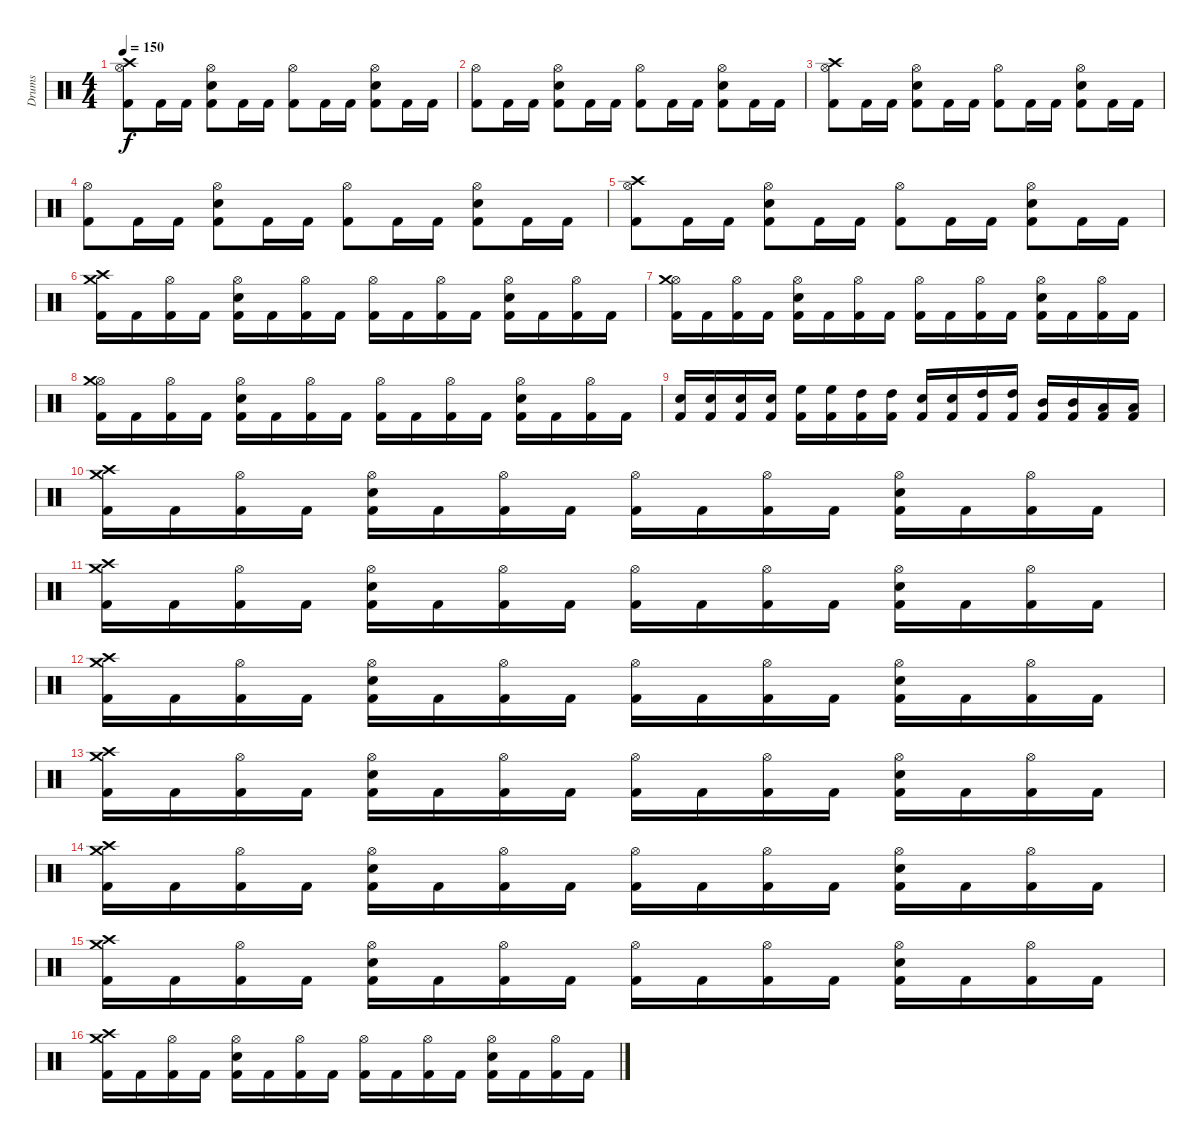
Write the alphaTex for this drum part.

\track ("Drums" "Drums") {instrument percussion}
\staff {score}
\articulation defaults
\ts (4 4)
\tempo 150
\clef neutral
\ks c
("Crash high (hit)" "Hi-Hat (open)" "Kick (hit) 2").8{dy f} "Kick (hit) 2".16 "Kick (hit) 2".16 ("Hi-Hat (open)" "Snare (hit) 2" "Kick (hit) 2").8 "Kick (hit) 2".16 "Kick (hit) 2".16 ("Hi-Hat (open)" "Kick (hit) 2").8 "Kick (hit) 2".16 "Kick (hit) 2".16 ("Hi-Hat (open)" "Snare (hit) 2" "Kick (hit) 2").8 "Kick (hit) 2".16 "Kick (hit) 2".16 |
("Hi-Hat (open)" "Kick (hit) 2").8 "Kick (hit) 2".16 "Kick (hit) 2".16 ("Hi-Hat (open)" "Snare (hit) 2" "Kick (hit) 2").8 "Kick (hit) 2".16 "Kick (hit) 2".16 ("Hi-Hat (open)" "Kick (hit) 2").8 "Kick (hit) 2".16 "Kick (hit) 2".16 ("Hi-Hat (open)" "Snare (hit) 2" "Kick (hit) 2").8 "Kick (hit) 2".16 "Kick (hit) 2".16 |
("Crash high (hit)" "Hi-Hat (open)" "Kick (hit) 2").8 "Kick (hit) 2".16 "Kick (hit) 2".16 ("Hi-Hat (open)" "Snare (hit) 2" "Kick (hit) 2").8 "Kick (hit) 2".16 "Kick (hit) 2".16 ("Hi-Hat (open)" "Kick (hit) 2").8 "Kick (hit) 2".16 "Kick (hit) 2".16 ("Hi-Hat (open)" "Snare (hit) 2" "Kick (hit) 2").8 "Kick (hit) 2".16 "Kick (hit) 2".16 |
("Hi-Hat (open)" "Kick (hit) 2").8 "Kick (hit) 2".16 "Kick (hit) 2".16 ("Hi-Hat (open)" "Snare (hit) 2" "Kick (hit) 2").8 "Kick (hit) 2".16 "Kick (hit) 2".16 ("Hi-Hat (open)" "Kick (hit) 2").8 "Kick (hit) 2".16 "Kick (hit) 2".16 ("Hi-Hat (open)" "Snare (hit) 2" "Kick (hit) 2").8 "Kick (hit) 2".16 "Kick (hit) 2".16 |
("Crash high (hit)" "Hi-Hat (open)" "Kick (hit) 2").8 "Kick (hit) 2".16 "Kick (hit) 2".16 ("Hi-Hat (open)" "Snare (hit) 2" "Kick (hit) 2").8 "Kick (hit) 2".16 "Kick (hit) 2".16 ("Hi-Hat (open)" "Kick (hit) 2").8 "Kick (hit) 2".16 "Kick (hit) 2".16 ("Hi-Hat (open)" "Snare (hit) 2" "Kick (hit) 2").8 "Kick (hit) 2".16 "Kick (hit) 2".16 |
("Crash high (hit)" "Crash medium (hit)" "Kick (hit) 2").16 "Kick (hit) 2".16 ("Hi-Hat (open)" "Kick (hit) 2").16 "Kick (hit) 2".16 ("Hi-Hat (open)" "Electric Snare (hit)" "Kick (hit) 2").16 "Kick (hit) 2".16 ("Hi-Hat (open)" "Kick (hit) 2").16 "Kick (hit) 2".16 ("Hi-Hat (open)" "Kick (hit) 2").16 "Kick (hit) 2".16 ("Hi-Hat (open)" "Kick (hit) 2").16 "Kick (hit) 2".16 ("Hi-Hat (open)" "Electric Snare (hit)" "Kick (hit) 2").16 "Kick (hit) 2".16 ("Hi-Hat (open)" "Kick (hit) 2").16 "Kick (hit) 2".16 |
("Hi-Hat (open)" "Crash medium (hit)" "Kick (hit) 2").16 "Kick (hit) 2".16 ("Hi-Hat (open)" "Kick (hit) 2").16 "Kick (hit) 2".16 ("Hi-Hat (open)" "Electric Snare (hit)" "Kick (hit) 2").16 "Kick (hit) 2".16 ("Hi-Hat (open)" "Kick (hit) 2").16 "Kick (hit) 2".16 ("Hi-Hat (open)" "Kick (hit) 2").16 "Kick (hit) 2".16 ("Hi-Hat (open)" "Kick (hit) 2").16 "Kick (hit) 2".16 ("Hi-Hat (open)" "Electric Snare (hit)" "Kick (hit) 2").16 "Kick (hit) 2".16 ("Hi-Hat (open)" "Kick (hit) 2").16 "Kick (hit) 2".16 |
("Hi-Hat (open)" "Crash medium (hit)" "Kick (hit) 2").16 "Kick (hit) 2".16 ("Hi-Hat (open)" "Kick (hit) 2").16 "Kick (hit) 2".16 ("Hi-Hat (open)" "Electric Snare (hit)" "Kick (hit) 2").16 "Kick (hit) 2".16 ("Hi-Hat (open)" "Kick (hit) 2").16 "Kick (hit) 2".16 ("Hi-Hat (open)" "Kick (hit) 2").16 "Kick (hit) 2".16 ("Hi-Hat (open)" "Kick (hit) 2").16 "Kick (hit) 2".16 ("Hi-Hat (open)" "Electric Snare (hit)" "Kick (hit) 2").16 "Kick (hit) 2".16 ("Hi-Hat (open)" "Kick (hit) 2").16 "Kick (hit) 2".16 |
("Kick (hit) 2" "Snare (hit) 2").16 ("Kick (hit) 2" "Snare (hit) 2").16 ("Kick (hit) 2" "Snare (hit) 2").16 ("Kick (hit) 2" "Snare (hit) 2").16 ("Kick (hit) 2" "High Floor Tom (hit)").16 ("Kick (hit) 2" "High Floor Tom (hit)").16 ("Kick (hit) 2" "High Tom (hit)").16 ("Kick (hit) 2" "High Tom (hit)").16 ("Kick (hit) 2" "Snare (hit) 2").16 ("Kick (hit) 2" "Snare (hit) 2").16 ("Kick (hit) 2" "High Tom (hit)").16 ("Kick (hit) 2" "High Tom (hit)").16 ("Kick (hit) 2" "Mid Tom (hit)").16 ("Kick (hit) 2" "Mid Tom (hit)").16 ("Kick (hit) 2" "Low Tom (hit)").16 ("Kick (hit) 2" "Low Tom (hit)").16 |
("Crash high (hit)" "Crash medium (hit)" "Kick (hit) 2").16 "Kick (hit) 2".16 ("Hi-Hat (open)" "Kick (hit) 2").16 "Kick (hit) 2".16 ("Hi-Hat (open)" "Electric Snare (hit)" "Kick (hit) 2").16 "Kick (hit) 2".16 ("Hi-Hat (open)" "Kick (hit) 2").16 "Kick (hit) 2".16 ("Hi-Hat (open)" "Kick (hit) 2").16 "Kick (hit) 2".16 ("Hi-Hat (open)" "Kick (hit) 2").16 "Kick (hit) 2".16 ("Hi-Hat (open)" "Electric Snare (hit)" "Kick (hit) 2").16 "Kick (hit) 2".16 ("Hi-Hat (open)" "Kick (hit) 2").16 "Kick (hit) 2".16 |
("Crash high (hit)" "Crash medium (hit)" "Kick (hit) 2").16 "Kick (hit) 2".16 ("Hi-Hat (open)" "Kick (hit) 2").16 "Kick (hit) 2".16 ("Hi-Hat (open)" "Electric Snare (hit)" "Kick (hit) 2").16 "Kick (hit) 2".16 ("Hi-Hat (open)" "Kick (hit) 2").16 "Kick (hit) 2".16 ("Hi-Hat (open)" "Kick (hit) 2").16 "Kick (hit) 2".16 ("Hi-Hat (open)" "Kick (hit) 2").16 "Kick (hit) 2".16 ("Hi-Hat (open)" "Electric Snare (hit)" "Kick (hit) 2").16 "Kick (hit) 2".16 ("Hi-Hat (open)" "Kick (hit) 2").16 "Kick (hit) 2".16 |
("Crash high (hit)" "Crash medium (hit)" "Kick (hit) 2").16 "Kick (hit) 2".16 ("Hi-Hat (open)" "Kick (hit) 2").16 "Kick (hit) 2".16 ("Hi-Hat (open)" "Electric Snare (hit)" "Kick (hit) 2").16 "Kick (hit) 2".16 ("Hi-Hat (open)" "Kick (hit) 2").16 "Kick (hit) 2".16 ("Hi-Hat (open)" "Kick (hit) 2").16 "Kick (hit) 2".16 ("Hi-Hat (open)" "Kick (hit) 2").16 "Kick (hit) 2".16 ("Hi-Hat (open)" "Electric Snare (hit)" "Kick (hit) 2").16 "Kick (hit) 2".16 ("Hi-Hat (open)" "Kick (hit) 2").16 "Kick (hit) 2".16 |
("Crash high (hit)" "Crash medium (hit)" "Kick (hit) 2").16 "Kick (hit) 2".16 ("Hi-Hat (open)" "Kick (hit) 2").16 "Kick (hit) 2".16 ("Hi-Hat (open)" "Electric Snare (hit)" "Kick (hit) 2").16 "Kick (hit) 2".16 ("Hi-Hat (open)" "Kick (hit) 2").16 "Kick (hit) 2".16 ("Hi-Hat (open)" "Kick (hit) 2").16 "Kick (hit) 2".16 ("Hi-Hat (open)" "Kick (hit) 2").16 "Kick (hit) 2".16 ("Hi-Hat (open)" "Electric Snare (hit)" "Kick (hit) 2").16 "Kick (hit) 2".16 ("Hi-Hat (open)" "Kick (hit) 2").16 "Kick (hit) 2".16 |
("Crash high (hit)" "Crash medium (hit)" "Kick (hit) 2").16 "Kick (hit) 2".16 ("Hi-Hat (open)" "Kick (hit) 2").16 "Kick (hit) 2".16 ("Hi-Hat (open)" "Electric Snare (hit)" "Kick (hit) 2").16 "Kick (hit) 2".16 ("Hi-Hat (open)" "Kick (hit) 2").16 "Kick (hit) 2".16 ("Hi-Hat (open)" "Kick (hit) 2").16 "Kick (hit) 2".16 ("Hi-Hat (open)" "Kick (hit) 2").16 "Kick (hit) 2".16 ("Hi-Hat (open)" "Electric Snare (hit)" "Kick (hit) 2").16 "Kick (hit) 2".16 ("Hi-Hat (open)" "Kick (hit) 2").16 "Kick (hit) 2".16 |
("Crash high (hit)" "Crash medium (hit)" "Kick (hit) 2").16 "Kick (hit) 2".16 ("Hi-Hat (open)" "Kick (hit) 2").16 "Kick (hit) 2".16 ("Hi-Hat (open)" "Electric Snare (hit)" "Kick (hit) 2").16 "Kick (hit) 2".16 ("Hi-Hat (open)" "Kick (hit) 2").16 "Kick (hit) 2".16 ("Hi-Hat (open)" "Kick (hit) 2").16 "Kick (hit) 2".16 ("Hi-Hat (open)" "Kick (hit) 2").16 "Kick (hit) 2".16 ("Hi-Hat (open)" "Electric Snare (hit)" "Kick (hit) 2").16 "Kick (hit) 2".16 ("Hi-Hat (open)" "Kick (hit) 2").16 "Kick (hit) 2".16 |
("Crash high (hit)" "Crash medium (hit)" "Kick (hit) 2").16 "Kick (hit) 2".16 ("Hi-Hat (open)" "Kick (hit) 2").16 "Kick (hit) 2".16 ("Hi-Hat (open)" "Electric Snare (hit)" "Kick (hit) 2").16 "Kick (hit) 2".16 ("Hi-Hat (open)" "Kick (hit) 2").16 "Kick (hit) 2".16 ("Hi-Hat (open)" "Kick (hit) 2").16 "Kick (hit) 2".16 ("Hi-Hat (open)" "Kick (hit) 2").16 "Kick (hit) 2".16 ("Hi-Hat (open)" "Electric Snare (hit)" "Kick (hit) 2").16 "Kick (hit) 2".16 ("Hi-Hat (open)" "Kick (hit) 2").16 "Kick (hit) 2".16
